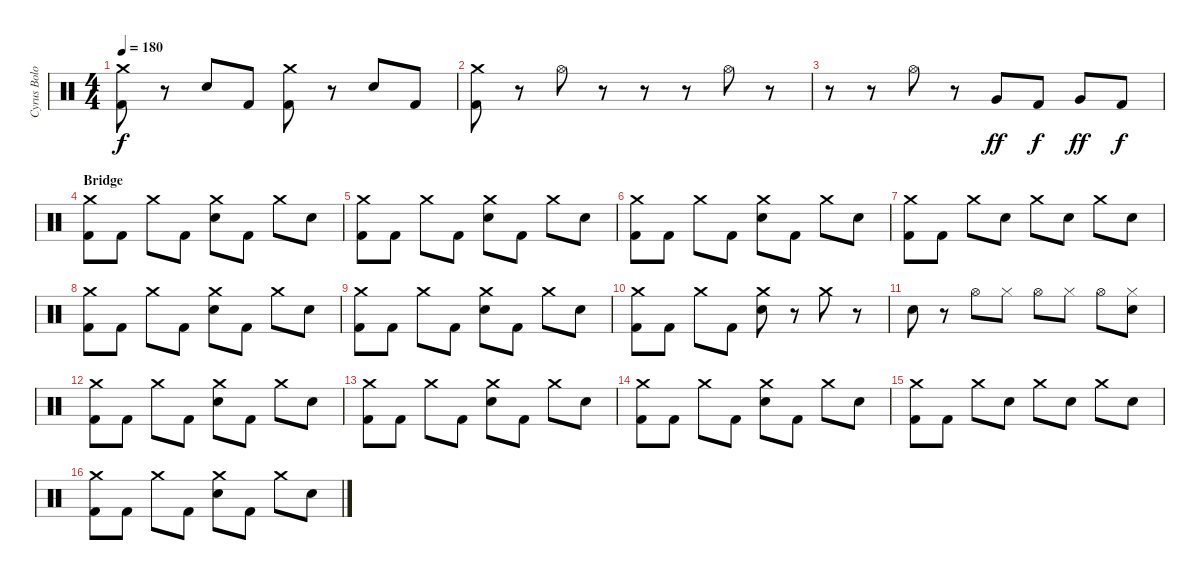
\track ("Cyrus Bolooki - Drums" "Cyrus Bolo") {instrument percussion}
\staff {score}
\articulation defaults
\ts (4 4)
\tempo 180
\clef neutral
\ks c
("Crash medium (hit)" "Kick (hit) 2").8{dy f} r.8 "Electric Snare (hit)".8 "Kick (hit) 2".8 ("Crash medium (hit)" "Kick (hit) 2").8 r.8 "Electric Snare (hit)".8 "Kick (hit) 2".8 |
("Crash medium (hit)" "Kick (hit) 2").8 r.8 "Hi-Hat (open)".8 r.8 r.8 r.8 "Hi-Hat (open)".8 r.8 |
r.8 r.8 "Hi-Hat (open)".8 r.8 "Very Low Tom (hit)".8{dy ff} "Kick (hit) 2".8{dy f} "Very Low Tom (hit)".8{dy ff} "Kick (hit) 2".8{dy f} |
\section ("" "Bridge")
("Crash medium (hit)" "Kick (hit) 2").8 "Kick (hit) 2".8 "Crash medium (hit)".8 "Kick (hit) 2".8 ("Crash medium (hit)" "Electric Snare (hit)").8 "Kick (hit) 2".8 "Crash medium (hit)".8 "Electric Snare (hit)".8 |
("Crash medium (hit)" "Kick (hit) 2").8 "Kick (hit) 2".8 "Crash medium (hit)".8 "Kick (hit) 2".8 ("Crash medium (hit)" "Electric Snare (hit)").8 "Kick (hit) 2".8 "Crash medium (hit)".8 "Electric Snare (hit)".8 |
("Crash medium (hit)" "Kick (hit) 2").8 "Kick (hit) 2".8 "Crash medium (hit)".8 "Kick (hit) 2".8 ("Crash medium (hit)" "Electric Snare (hit)").8 "Kick (hit) 2".8 "Crash medium (hit)".8 "Electric Snare (hit)".8 |
("Crash medium (hit)" "Kick (hit) 2").8 "Kick (hit) 2".8 "Crash medium (hit)".8 "Electric Snare (hit)".8 "Crash medium (hit)".8 "Electric Snare (hit)".8 "Crash medium (hit)".8 "Electric Snare (hit)".8 |
("Crash medium (hit)" "Kick (hit) 2").8 "Kick (hit) 2".8 "Crash medium (hit)".8 "Kick (hit) 2".8 ("Crash medium (hit)" "Electric Snare (hit)").8 "Kick (hit) 2".8 "Crash medium (hit)".8 "Electric Snare (hit)".8 |
("Crash medium (hit)" "Kick (hit) 2").8 "Kick (hit) 2".8 "Crash medium (hit)".8 "Kick (hit) 2".8 ("Crash medium (hit)" "Electric Snare (hit)").8 "Kick (hit) 2".8 "Crash medium (hit)".8 "Electric Snare (hit)".8 |
("Crash medium (hit)" "Kick (hit) 2").8 "Kick (hit) 2".8 "Crash medium (hit)".8 "Kick (hit) 2".8 ("Crash medium (hit)" "Electric Snare (hit)").8 r.8 "Crash medium (hit)".8 r.8 |
"Electric Snare (hit)".8 r.8 "Hi-Hat (open)".8 "Hi-Hat (closed)".8 "Hi-Hat (open)".8 "Hi-Hat (closed)".8 "Hi-Hat (open)".8 ("Hi-Hat (closed)" "Electric Snare (hit)").8 |
("Crash medium (hit)" "Kick (hit) 2").8 "Kick (hit) 2".8 "Crash medium (hit)".8 "Kick (hit) 2".8 ("Crash medium (hit)" "Electric Snare (hit)").8 "Kick (hit) 2".8 "Crash medium (hit)".8 "Electric Snare (hit)".8 |
("Crash medium (hit)" "Kick (hit) 2").8 "Kick (hit) 2".8 "Crash medium (hit)".8 "Kick (hit) 2".8 ("Crash medium (hit)" "Electric Snare (hit)").8 "Kick (hit) 2".8 "Crash medium (hit)".8 "Electric Snare (hit)".8 |
("Crash medium (hit)" "Kick (hit) 2").8 "Kick (hit) 2".8 "Crash medium (hit)".8 "Kick (hit) 2".8 ("Crash medium (hit)" "Electric Snare (hit)").8 "Kick (hit) 2".8 "Crash medium (hit)".8 "Electric Snare (hit)".8 |
("Crash medium (hit)" "Kick (hit) 2").8 "Kick (hit) 2".8 "Crash medium (hit)".8 "Electric Snare (hit)".8 "Crash medium (hit)".8 "Electric Snare (hit)".8 "Crash medium (hit)".8 "Electric Snare (hit)".8 |
("Crash medium (hit)" "Kick (hit) 2").8 "Kick (hit) 2".8 "Crash medium (hit)".8 "Kick (hit) 2".8 ("Crash medium (hit)" "Electric Snare (hit)").8 "Kick (hit) 2".8 "Crash medium (hit)".8 "Electric Snare (hit)".8
